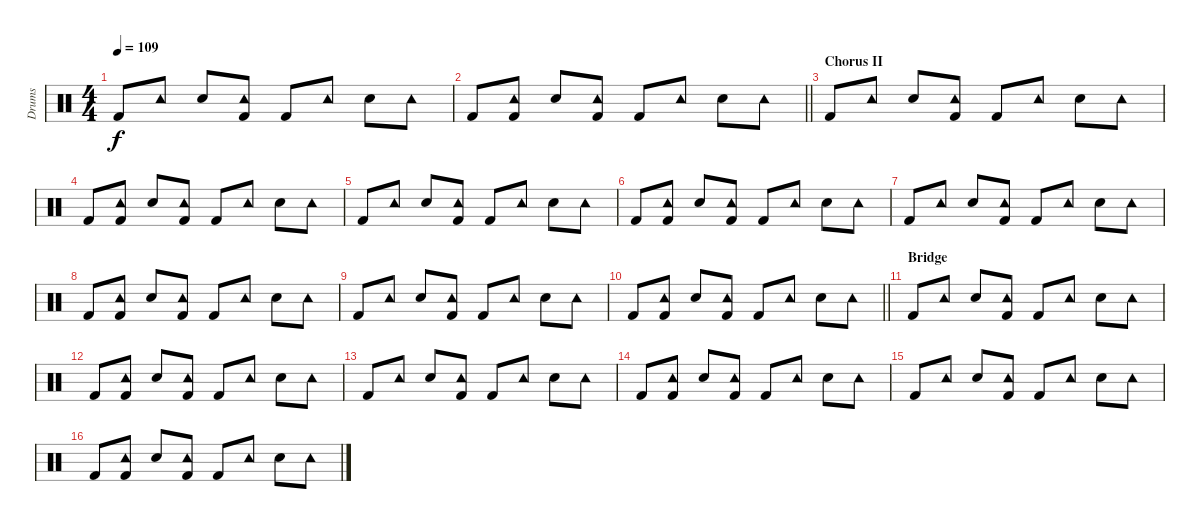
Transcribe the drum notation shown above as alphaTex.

\track ("Drums" "Drums") {instrument percussion}
\staff {score}
\articulation defaults
\ts (4 4)
\tempo 109
\clef neutral
\ks c "Kick (hit) 2".8{dy f} "Tambourine (hit)".8 "Snare (hit) 2".8
("Tambourine (hit)" "Kick (hit) 2").8 "Kick (hit) 2".8 "Tambourine (hit)".8 "Snare (hit) 2".8 "Tambourine (hit)".8 |
\barLineRight lightlight "Kick (hit) 2".8
("Tambourine (hit)" "Kick (hit) 2").8 "Snare (hit) 2".8 ("Tambourine (hit)" "Kick (hit) 2").8 "Kick (hit) 2".8 "Tambourine (hit)".8 "Snare (hit) 2".8 "Tambourine (hit)".8 |
\section ("" "Chorus II")
"Kick (hit) 2".8 "Tambourine (hit)".8 "Snare (hit) 2".8 ("Tambourine (hit)" "Kick (hit) 2").8 "Kick (hit) 2".8 "Tambourine (hit)".8 "Snare (hit) 2".8 "Tambourine (hit)".8 |
"Kick (hit) 2".8 ("Tambourine (hit)" "Kick (hit) 2").8 "Snare (hit) 2".8 ("Tambourine (hit)" "Kick (hit) 2").8 "Kick (hit) 2".8 "Tambourine (hit)".8 "Snare (hit) 2".8 "Tambourine (hit)".8 |
"Kick (hit) 2".8 "Tambourine (hit)".8 "Snare (hit) 2".8 ("Tambourine (hit)" "Kick (hit) 2").8 "Kick (hit) 2".8 "Tambourine (hit)".8 "Snare (hit) 2".8 "Tambourine (hit)".8 |
"Kick (hit) 2".8 ("Tambourine (hit)" "Kick (hit) 2").8 "Snare (hit) 2".8 ("Tambourine (hit)" "Kick (hit) 2").8 "Kick (hit) 2".8 "Tambourine (hit)".8 "Snare (hit) 2".8 "Tambourine (hit)".8 |
"Kick (hit) 2".8 "Tambourine (hit)".8 "Snare (hit) 2".8 ("Tambourine (hit)" "Kick (hit) 2").8 "Kick (hit) 2".8 "Tambourine (hit)".8 "Snare (hit) 2".8 "Tambourine (hit)".8 |
"Kick (hit) 2".8 ("Tambourine (hit)" "Kick (hit) 2").8 "Snare (hit) 2".8 ("Tambourine (hit)" "Kick (hit) 2").8 "Kick (hit) 2".8 "Tambourine (hit)".8 "Snare (hit) 2".8 "Tambourine (hit)".8 |
"Kick (hit) 2".8 "Tambourine (hit)".8 "Snare (hit) 2".8 ("Tambourine (hit)" "Kick (hit) 2").8 "Kick (hit) 2".8 "Tambourine (hit)".8 "Snare (hit) 2".8 "Tambourine (hit)".8 |
\barLineRight lightlight "Kick (hit) 2".8
("Tambourine (hit)" "Kick (hit) 2").8 "Snare (hit) 2".8 ("Tambourine (hit)" "Kick (hit) 2").8 "Kick (hit) 2".8 "Tambourine (hit)".8 "Snare (hit) 2".8 "Tambourine (hit)".8 |
\section ("" "Bridge")
"Kick (hit) 2".8 "Tambourine (hit)".8 "Snare (hit) 2".8 ("Tambourine (hit)" "Kick (hit) 2").8 "Kick (hit) 2".8 "Tambourine (hit)".8 "Snare (hit) 2".8 "Tambourine (hit)".8 |
"Kick (hit) 2".8 ("Tambourine (hit)" "Kick (hit) 2").8 "Snare (hit) 2".8 ("Tambourine (hit)" "Kick (hit) 2").8 "Kick (hit) 2".8 "Tambourine (hit)".8 "Snare (hit) 2".8 "Tambourine (hit)".8 |
"Kick (hit) 2".8 "Tambourine (hit)".8 "Snare (hit) 2".8 ("Tambourine (hit)" "Kick (hit) 2").8 "Kick (hit) 2".8 "Tambourine (hit)".8 "Snare (hit) 2".8 "Tambourine (hit)".8 |
"Kick (hit) 2".8 ("Tambourine (hit)" "Kick (hit) 2").8 "Snare (hit) 2".8 ("Tambourine (hit)" "Kick (hit) 2").8 "Kick (hit) 2".8 "Tambourine (hit)".8 "Snare (hit) 2".8 "Tambourine (hit)".8 |
"Kick (hit) 2".8 "Tambourine (hit)".8 "Snare (hit) 2".8 ("Tambourine (hit)" "Kick (hit) 2").8 "Kick (hit) 2".8 "Tambourine (hit)".8 "Snare (hit) 2".8 "Tambourine (hit)".8 |
"Kick (hit) 2".8 ("Tambourine (hit)" "Kick (hit) 2").8 "Snare (hit) 2".8 ("Tambourine (hit)" "Kick (hit) 2").8 "Kick (hit) 2".8 "Tambourine (hit)".8 "Snare (hit) 2".8 "Tambourine (hit)".8
